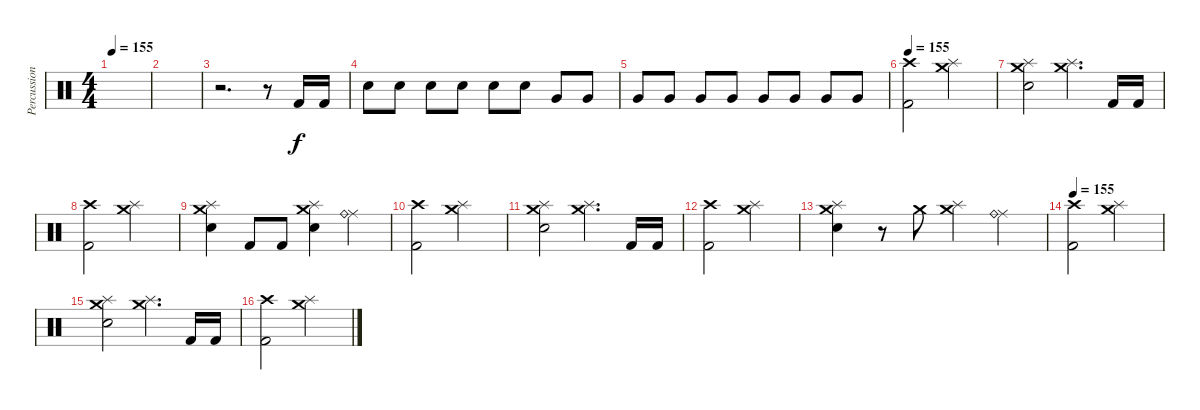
\track ("Percussions" "Percussion") {instrument percussion}
\staff {score}
\articulation defaults
\ts (4 4)
\tempo 155
\clef neutral
\ks c
|
|
r.2{d volume 6} r.8 "Kick (hit) 2".16 "Kick (hit) 2".16 |
"Electric Snare (hit)".8{volume 16} "Electric Snare (hit)".8 "Electric Snare (hit)".8 "Electric Snare (hit)".8 "Electric Snare (hit)".8 "Electric Snare (hit)".8 "Very Low Tom (hit)".8 "Very Low Tom (hit)".8 |
"Very Low Tom (hit)".8 "Very Low Tom (hit)".8 "Very Low Tom (hit)".8 "Very Low Tom (hit)".8 "Very Low Tom (hit)".8 "Very Low Tom (hit)".8 "Very Low Tom (hit)".8 "Very Low Tom (hit)".8 |
\tempo 155
("Crash high (hit)" "Kick (hit) 2").2 ("Splash (hit)" "Crash medium (hit)").2 |
("Splash (hit)" "Crash medium (hit)" "Electric Snare (hit)").2 ("Splash (hit)" "Crash medium (hit)").4{d} "Kick (hit) 2".16 "Kick (hit) 2".16 |
("Crash high (hit)" "Kick (hit) 2").2 ("Splash (hit)" "Crash medium (hit)").2 |
("Crash medium (hit)" "Splash (hit)" "Electric Snare (hit)").4 "Kick (hit) 2".8 "Kick (hit) 2".8 ("Splash (hit)" "Crash medium (hit)" "Electric Snare (hit)").4 ("Ride (middle)" "Ride (bell)").4 |
("Crash high (hit)" "Kick (hit) 2").2 ("Splash (hit)" "Crash medium (hit)").2 |
("Splash (hit)" "Crash medium (hit)" "Electric Snare (hit)").2 ("Splash (hit)" "Crash medium (hit)").4{d} "Kick (hit) 2".16 "Kick (hit) 2".16 |
("Crash high (hit)" "Kick (hit) 2").2 ("Splash (hit)" "Crash medium (hit)").2 |
("Crash medium (hit)" "Splash (hit)" "Electric Snare (hit)").4 r.8 "Crash medium (hit)".8 ("Splash (hit)" "Crash medium (hit)").4 ("Ride (middle)" "Ride (bell)").4 |
\tempo 155
("Crash high (hit)" "Kick (hit) 2").2 ("Splash (hit)" "Crash medium (hit)").2 |
("Splash (hit)" "Crash medium (hit)" "Electric Snare (hit)").2 ("Splash (hit)" "Crash medium (hit)").4{d} "Kick (hit) 2".16 "Kick (hit) 2".16 |
("Crash high (hit)" "Kick (hit) 2").2 ("Splash (hit)" "Crash medium (hit)").2
